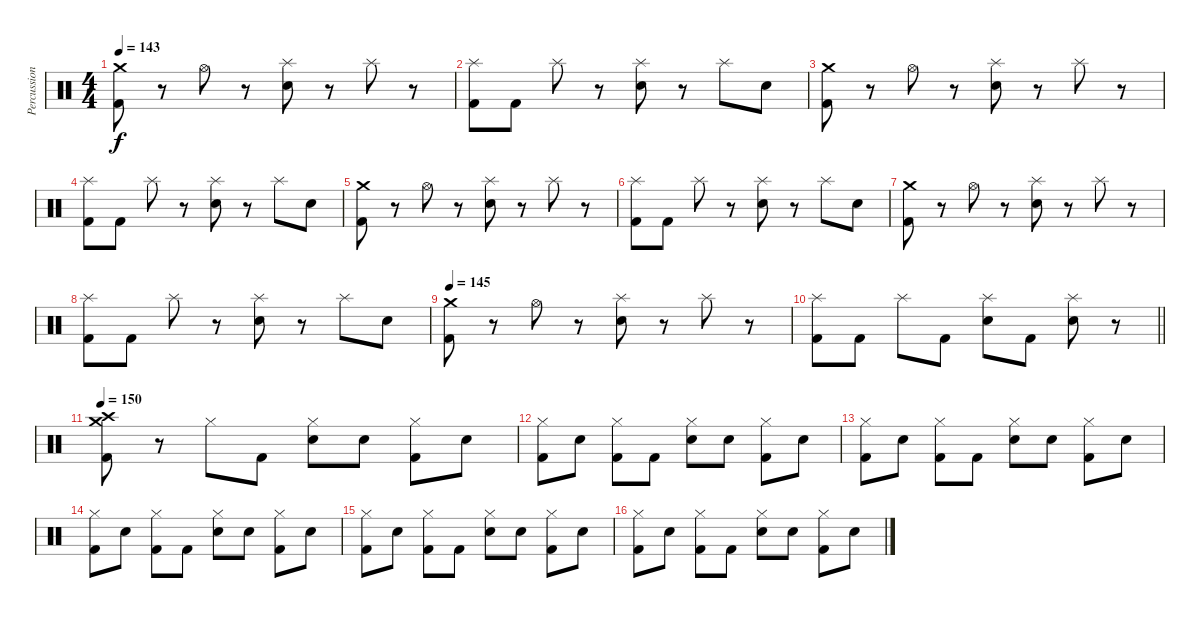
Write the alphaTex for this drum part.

\track ("Percussion" "Percussion") {instrument percussion}
\staff {score}
\articulation defaults
\ts (4 4)
\tempo 143
\clef neutral
\ks c
("Crash medium (hit)" "Kick (hit) 2").8{dy f} r.8 "Hi-Hat (open)".8 r.8 ("Splash (hit)" "Electric Snare (hit)").8 r.8 "Splash (hit)".8 r.8 |
("Splash (hit)" "Kick (hit) 2").8 "Kick (hit) 2".8 "Splash (hit)".8 r.8 ("Splash (hit)" "Electric Snare (hit)").8 r.8 "Splash (hit)".8 "Electric Snare (hit)".8 |
("Crash medium (hit)" "Kick (hit) 2").8 r.8 "Hi-Hat (open)".8 r.8 ("Splash (hit)" "Electric Snare (hit)").8 r.8 "Splash (hit)".8 r.8 |
("Splash (hit)" "Kick (hit) 2").8 "Kick (hit) 2".8 "Splash (hit)".8 r.8 ("Splash (hit)" "Electric Snare (hit)").8 r.8 "Splash (hit)".8 "Electric Snare (hit)".8 |
("Crash medium (hit)" "Kick (hit) 2").8 r.8 "Hi-Hat (open)".8 r.8 ("Splash (hit)" "Electric Snare (hit)").8 r.8 "Splash (hit)".8 r.8 |
("Splash (hit)" "Kick (hit) 2").8 "Kick (hit) 2".8 "Splash (hit)".8 r.8 ("Splash (hit)" "Electric Snare (hit)").8 r.8 "Splash (hit)".8 "Electric Snare (hit)".8 |
("Crash medium (hit)" "Kick (hit) 2").8 r.8 "Hi-Hat (open)".8 r.8 ("Splash (hit)" "Electric Snare (hit)").8 r.8 "Splash (hit)".8 r.8 |
("Splash (hit)" "Kick (hit) 2").8 "Kick (hit) 2".8 "Splash (hit)".8 r.8 ("Splash (hit)" "Electric Snare (hit)").8 r.8 "Splash (hit)".8 "Electric Snare (hit)".8 |
\tempo 145
("Crash medium (hit)" "Kick (hit) 2").8 r.8 "Hi-Hat (open)".8 r.8 ("Splash (hit)" "Electric Snare (hit)").8 r.8 "Splash (hit)".8 r.8 |
\barLineRight lightlight
("Splash (hit)" "Kick (hit) 2").8 "Kick (hit) 2".8 "Splash (hit)".8 "Kick (hit) 2".8 ("Splash (hit)" "Electric Snare (hit)").8 "Kick (hit) 2".8 ("Splash (hit)" "Electric Snare (hit)").8 r.8 |
\section ("" "")
\tempo 150
("Crash medium (hit)" "Crash high (hit)" "Kick (hit) 2").8 r.8 "Hi-Hat (closed)".8 "Kick (hit) 2".8 ("Hi-Hat (closed)" "Electric Snare (hit)").8 "Electric Snare (hit)".8 ("Hi-Hat (closed)" "Kick (hit) 2").8 "Electric Snare (hit)".8 |
("Hi-Hat (closed)" "Kick (hit) 2").8 "Electric Snare (hit)".8 ("Hi-Hat (closed)" "Kick (hit) 2").8 "Kick (hit) 2".8 ("Hi-Hat (closed)" "Electric Snare (hit)").8 "Electric Snare (hit)".8 ("Hi-Hat (closed)" "Kick (hit) 2").8 "Electric Snare (hit)".8 |
("Hi-Hat (closed)" "Kick (hit) 2").8 "Electric Snare (hit)".8 ("Hi-Hat (closed)" "Kick (hit) 2").8 "Kick (hit) 2".8 ("Hi-Hat (closed)" "Electric Snare (hit)").8 "Electric Snare (hit)".8 ("Hi-Hat (closed)" "Kick (hit) 2").8 "Electric Snare (hit)".8 |
("Hi-Hat (closed)" "Kick (hit) 2").8 "Electric Snare (hit)".8 ("Hi-Hat (closed)" "Kick (hit) 2").8 "Kick (hit) 2".8 ("Hi-Hat (closed)" "Electric Snare (hit)").8 "Electric Snare (hit)".8 ("Hi-Hat (closed)" "Kick (hit) 2").8 "Electric Snare (hit)".8 |
("Hi-Hat (closed)" "Kick (hit) 2").8 "Electric Snare (hit)".8 ("Hi-Hat (closed)" "Kick (hit) 2").8 "Kick (hit) 2".8 ("Hi-Hat (closed)" "Electric Snare (hit)").8 "Electric Snare (hit)".8 ("Hi-Hat (closed)" "Kick (hit) 2").8 "Electric Snare (hit)".8 |
("Hi-Hat (closed)" "Kick (hit) 2").8 "Electric Snare (hit)".8 ("Hi-Hat (closed)" "Kick (hit) 2").8 "Kick (hit) 2".8 ("Hi-Hat (closed)" "Electric Snare (hit)").8 "Electric Snare (hit)".8 ("Hi-Hat (closed)" "Kick (hit) 2").8 "Electric Snare (hit)".8
